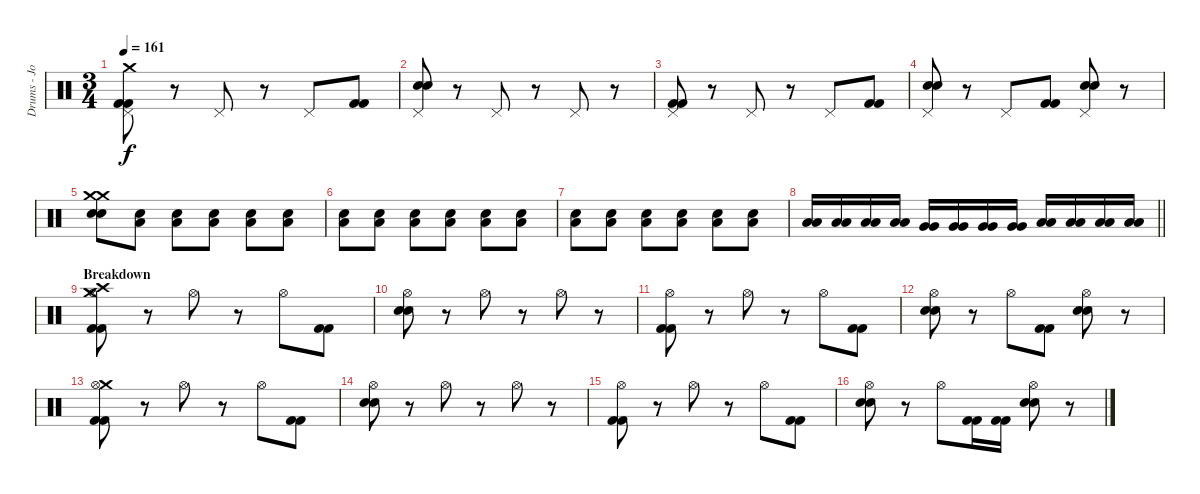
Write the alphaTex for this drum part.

\track ("Drums - Jon Wilkes" "Drums - Jo") {instrument percussion}
\staff {score}
\articulation defaults
\ts (3 4)
\tempo 161
\clef neutral
\ks c
("Crash medium (hit)" "Pedal Hi-Hat (hit)" "Kick (hit) 2" "Kick (hit) 2").8{dy f} r.8 "Pedal Hi-Hat (hit)".8 r.8 "Pedal Hi-Hat (hit)".8 ("Kick (hit) 2" "Kick (hit) 2").8 |
("Pedal Hi-Hat (hit)" "Electric Snare (hit)" "Electric Snare (hit)").8 r.8 "Pedal Hi-Hat (hit)".8 r.8 "Pedal Hi-Hat (hit)".8 r.8 |
("Pedal Hi-Hat (hit)" "Kick (hit) 2" "Kick (hit) 2").8 r.8 "Pedal Hi-Hat (hit)".8 r.8 "Pedal Hi-Hat (hit)".8 ("Kick (hit) 2" "Kick (hit) 2").8 |
("Pedal Hi-Hat (hit)" "Electric Snare (hit)" "Electric Snare (hit)").8 r.8 "Pedal Hi-Hat (hit)".8 ("Kick (hit) 2" "Kick (hit) 2").8 ("Pedal Hi-Hat (hit)" "Electric Snare (hit)" "Electric Snare (hit)").8 r.8 |
("Crash medium (hit)" "Crash medium (hit)" "Electric Snare (hit)" "Electric Snare (hit)").8 ("Electric Snare (hit)" "Low Floor Tom (hit)").8{volume 8} ("Electric Snare (hit)" "Low Floor Tom (hit)").8{volume 16} ("Electric Snare (hit)" "Low Floor Tom (hit)").8 ("Electric Snare (hit)" "Low Floor Tom (hit)").8 ("Electric Snare (hit)" "Low Floor Tom (hit)").8 |
("Electric Snare (hit)" "Low Floor Tom (hit)").8 ("Electric Snare (hit)" "Low Floor Tom (hit)").8 ("Electric Snare (hit)" "Low Floor Tom (hit)").8 ("Electric Snare (hit)" "Low Floor Tom (hit)").8 ("Electric Snare (hit)" "Low Floor Tom (hit)").8 ("Electric Snare (hit)" "Low Floor Tom (hit)").8 |
("Electric Snare (hit)" "Low Floor Tom (hit)").8 ("Electric Snare (hit)" "Low Floor Tom (hit)").8 ("Electric Snare (hit)" "Low Floor Tom (hit)").8 ("Electric Snare (hit)" "Low Floor Tom (hit)").8 ("Electric Snare (hit)" "Low Floor Tom (hit)").8 ("Electric Snare (hit)" "Low Floor Tom (hit)").8 |
\barLineRight lightlight
("Low Tom (hit)" "Low Tom (hit)").16 ("Low Tom (hit)" "Low Tom (hit)").16 ("Low Tom (hit)" "Low Tom (hit)").16 ("Low Tom (hit)" "Low Tom (hit)").16 ("Very Low Tom (hit)" "Very Low Tom (hit)").16 ("Very Low Tom (hit)" "Very Low Tom (hit)").16 ("Very Low Tom (hit)" "Very Low Tom (hit)").16 ("Very Low Tom (hit)" "Very Low Tom (hit)").16 ("Low Floor Tom (hit)" "Low Floor Tom (hit)").16 ("Low Floor Tom (hit)" "Low Floor Tom (hit)").16 ("Low Floor Tom (hit)" "Low Floor Tom (hit)").16 ("Low Floor Tom (hit)" "Low Floor Tom (hit)").16 |
\section ("" "Breakdown")
("Crash high (hit)" "Hi-Hat (open)" "Crash medium (hit)" "Kick (hit) 2" "Kick (hit) 2").8 r.8 "Hi-Hat (open)".8 r.8 "Hi-Hat (open)".8 ("Kick (hit) 2" "Kick (hit) 2").8 |
("Hi-Hat (open)" "Electric Snare (hit)" "Electric Snare (hit)").8 r.8 "Hi-Hat (open)".8 r.8 "Hi-Hat (open)".8 r.8 |
("Hi-Hat (open)" "Kick (hit) 2" "Kick (hit) 2").8 r.8 "Hi-Hat (open)".8 r.8 "Hi-Hat (open)".8 ("Kick (hit) 2" "Kick (hit) 2").8 |
("Hi-Hat (open)" "Electric Snare (hit)" "Electric Snare (hit)").8 r.8 "Hi-Hat (open)".8 ("Kick (hit) 2" "Kick (hit) 2").8 ("Hi-Hat (open)" "Electric Snare (hit)" "Electric Snare (hit)").8 r.8 |
("Crash medium (hit)" "Hi-Hat (open)" "Kick (hit) 2" "Kick (hit) 2").8 r.8 "Hi-Hat (open)".8 r.8 "Hi-Hat (open)".8 ("Kick (hit) 2" "Kick (hit) 2").8 |
("Hi-Hat (open)" "Electric Snare (hit)" "Electric Snare (hit)").8 r.8 "Hi-Hat (open)".8 r.8 "Hi-Hat (open)".8 r.8 |
("Hi-Hat (open)" "Kick (hit) 2" "Kick (hit) 2").8 r.8 "Hi-Hat (open)".8 r.8 "Hi-Hat (open)".8 ("Kick (hit) 2" "Kick (hit) 2").8 |
("Hi-Hat (open)" "Electric Snare (hit)" "Electric Snare (hit)").8 r.8 "Hi-Hat (open)".8 ("Kick (hit) 2" "Kick (hit) 2").16 ("Kick (hit) 2" "Kick (hit) 2").16 ("Hi-Hat (open)" "Electric Snare (hit)" "Electric Snare (hit)").8 r.8
